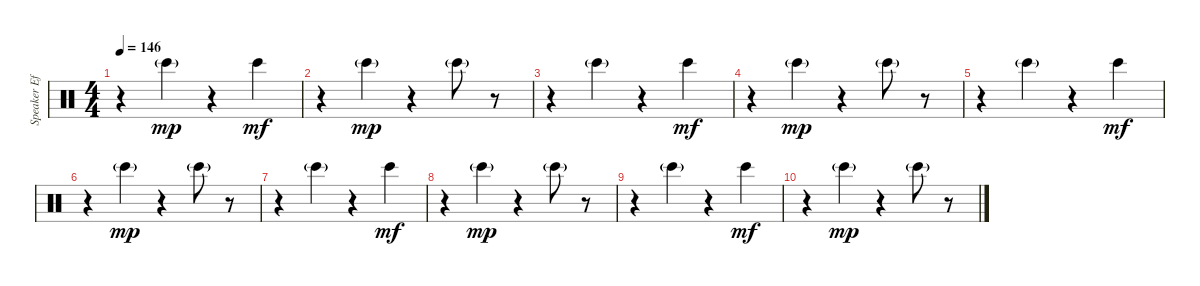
\track ("Speaker Effects" "Speaker Ef") {instrument percussion}
\staff {score}
\articulation defaults
\ts (4 4)
\tempo 146
\clef neutral
\ks c
r.4{dy mp balance 8} "Bongo High (hit)"{g}.4{balance 4} r.4{balance 8} "Bongo High (hit)".4{dy mf balance 12} |
r.4{balance 8} "Bongo High (hit)"{g}.4{dy mp balance 4} r.4{balance 8} "Bongo High (hit)"{g}.8{balance 16} r.8{balance 8} |
r.4{balance 8} "Bongo High (hit)"{g}.4{balance 4} r.4{balance 8} "Bongo High (hit)".4{dy mf balance 12} |
r.4{balance 8} "Bongo High (hit)"{g}.4{dy mp balance 4} r.4{balance 8} "Bongo High (hit)"{g}.8{balance 16} r.8{balance 8} |
r.4{balance 8} "Bongo High (hit)"{g}.4{balance 4} r.4{balance 8} "Bongo High (hit)".4{dy mf balance 12} |
r.4{balance 8} "Bongo High (hit)"{g}.4{dy mp balance 4} r.4{balance 8} "Bongo High (hit)"{g}.8{balance 16} r.8{balance 8} |
r.4{balance 8} "Bongo High (hit)"{g}.4{balance 4} r.4{balance 8} "Bongo High (hit)".4{dy mf balance 12} |
r.4{balance 8} "Bongo High (hit)"{g}.4{dy mp balance 4} r.4{balance 8} "Bongo High (hit)"{g}.8{balance 16} r.8{balance 8} |
r.4{balance 8} "Bongo High (hit)"{g}.4{balance 4} r.4{balance 8} "Bongo High (hit)".4{dy mf balance 12} |
r.4{balance 8} "Bongo High (hit)"{g}.4{dy mp balance 4} r.4{balance 8} "Bongo High (hit)"{g}.8{balance 16} r.8{balance 8}
